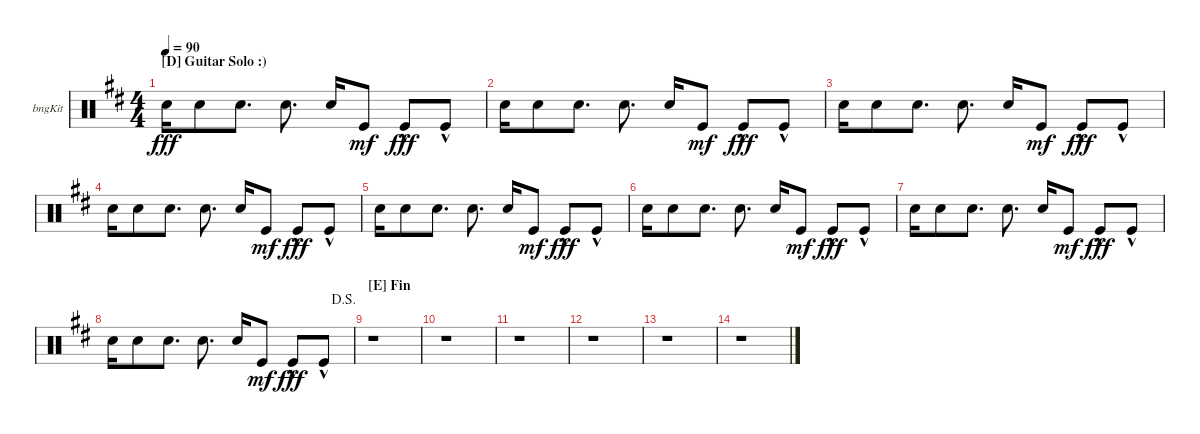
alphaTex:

\defaultSystemsLayout 4
\bracketExtendMode groupsimilarinstruments
\firstSystemTrackNameOrientation horizontal
\otherSystemsTrackNameOrientation horizontal
\track ("hi & lo synth drum" "bngKit") {instrument percussion}
\staff {score}
\articulation defaults
\ts (4 4)
\section ("D" "Guitar Solo :)")
\tempo 90
\clef neutral
\scale
0.25
\ks d "Snare (hit) 2".16{dy fff} "Snare (hit) 2".8 "Snare (hit) 2".8{d} "Snare (hit) 2".8{d} "Snare (hit) 2".16 "Kick (hit)".8{dy mf} "Kick (hit)"{hac}.8{dy fff} "Kick (hit)"{hac}.8
|
\scale
0.25 "Snare (hit) 2".16 "Snare (hit) 2".8 "Snare (hit) 2".8{d} "Snare (hit) 2".8{d} "Snare (hit) 2".16 "Kick (hit)".8{dy mf} "Kick (hit)"{hac}.8{dy fff} "Kick (hit)"{hac}.8 |
\scale
0.25 "Snare (hit) 2".16 "Snare (hit) 2".8 "Snare (hit) 2".8{d} "Snare (hit) 2".8{d} "Snare (hit) 2".16 "Kick (hit)".8{dy mf} "Kick (hit)"{hac}.8{dy fff} "Kick (hit)"{hac}.8 |
\scale
0.25 "Snare (hit) 2".16 "Snare (hit) 2".8 "Snare (hit) 2".8{d} "Snare (hit) 2".8{d} "Snare (hit) 2".16 "Kick (hit)".8{dy mf} "Kick (hit)"{hac}.8{dy fff} "Kick (hit)"{hac}.8 |
\scale
0.25 "Snare (hit) 2".16 "Snare (hit) 2".8 "Snare (hit) 2".8{d} "Snare (hit) 2".8{d} "Snare (hit) 2".16 "Kick (hit)".8{dy mf} "Kick (hit)"{hac}.8{dy fff} "Kick (hit)"{hac}.8 |
\scale
0.25 "Snare (hit) 2".16 "Snare (hit) 2".8 "Snare (hit) 2".8{d} "Snare (hit) 2".8{d} "Snare (hit) 2".16 "Kick (hit)".8{dy mf} "Kick (hit)"{hac}.8{dy fff} "Kick (hit)"{hac}.8 |
\scale
0.25 "Snare (hit) 2".16 "Snare (hit) 2".8 "Snare (hit) 2".8{d} "Snare (hit) 2".8{d} "Snare (hit) 2".16 "Kick (hit)".8{dy mf} "Kick (hit)"{hac}.8{dy fff} "Kick (hit)"{hac}.8 |
\jump dalsegno
\scale
0.25 "Snare (hit) 2".16 "Snare (hit) 2".8 "Snare (hit) 2".8{d} "Snare (hit) 2".8{d} "Snare (hit) 2".16 "Kick (hit)".8{dy mf} "Kick (hit)"{hac}.8{dy fff} "Kick (hit)"{hac}.8 |
\section ("E" "Fin")
r.1 |
r.1 |
r.1 |
r.1 |
r.1 |
r.1
